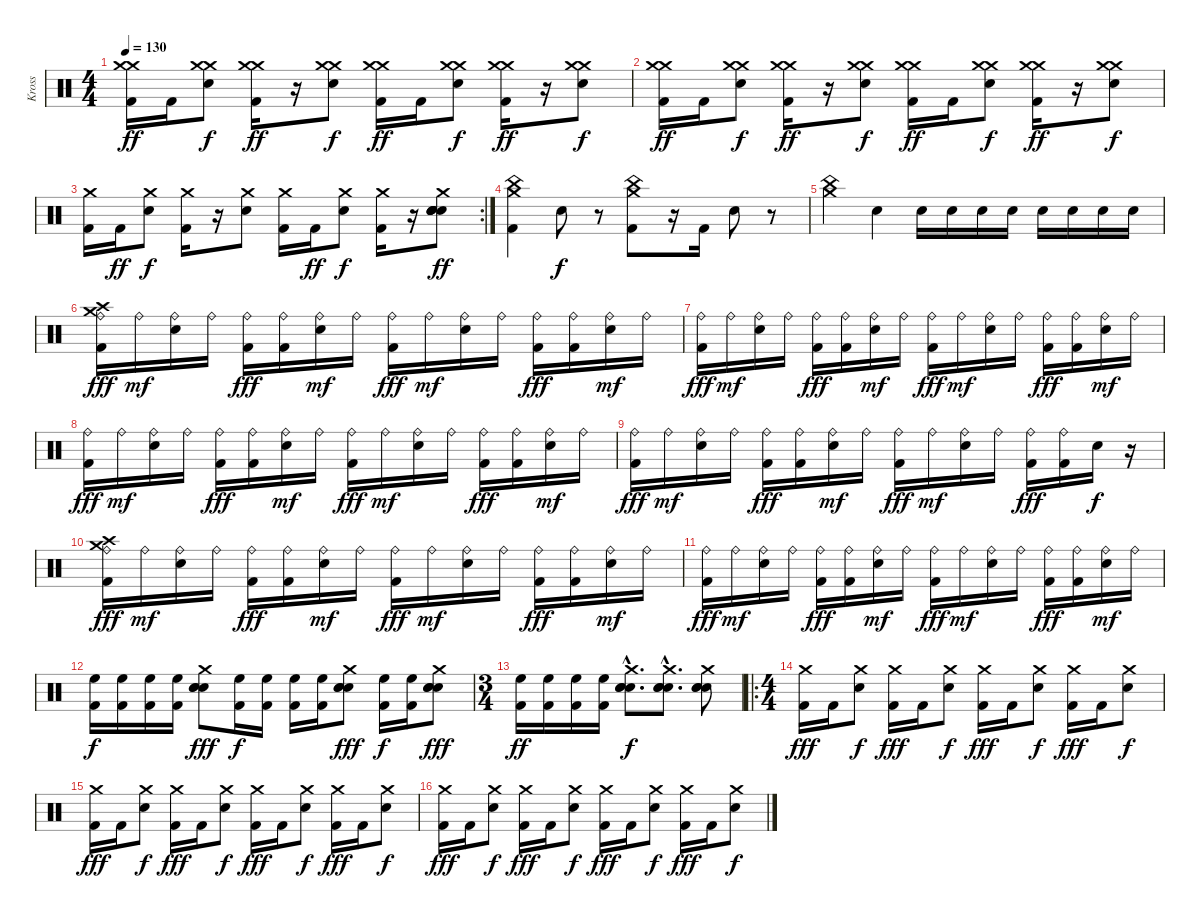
\track ("Kross" "Kross") {instrument percussion}
\staff {score}
\articulation defaults
\ts (4 4)
\tempo 130
\clef neutral
\ks c
("Kick (hit) 2" "Crash medium (hit)" "Crash medium (hit)").16{dy ff} "Kick (hit) 2".16 ("Crash medium (hit)" "Crash medium (hit)" "Snare (hit) 2").8{dy f} ("Kick (hit) 2" "Crash medium (hit)" "Crash medium (hit)").16{dy ff} r.16 ("Crash medium (hit)" "Crash medium (hit)" "Snare (hit) 2").8{dy f} ("Kick (hit) 2" "Crash medium (hit)" "Crash medium (hit)").16{dy ff} "Kick (hit) 2".16 ("Crash medium (hit)" "Crash medium (hit)" "Snare (hit) 2").8{dy f} ("Kick (hit) 2" "Crash medium (hit)" "Crash medium (hit)").16{dy ff} r.16 ("Crash medium (hit)" "Crash medium (hit)" "Snare (hit) 2").8{dy f} |
("Kick (hit) 2" "Crash medium (hit)" "Crash medium (hit)").16{dy ff} "Kick (hit) 2".16 ("Crash medium (hit)" "Crash medium (hit)" "Snare (hit) 2").8{dy f} ("Kick (hit) 2" "Crash medium (hit)" "Crash medium (hit)").16{dy ff} r.16 ("Crash medium (hit)" "Crash medium (hit)" "Snare (hit) 2").8{dy f} ("Kick (hit) 2" "Crash medium (hit)" "Crash medium (hit)").16{dy ff} "Kick (hit) 2".16 ("Crash medium (hit)" "Crash medium (hit)" "Snare (hit) 2").8{dy f} ("Kick (hit) 2" "Crash medium (hit)" "Crash medium (hit)").16{dy ff} r.16 ("Crash medium (hit)" "Crash medium (hit)" "Snare (hit) 2").8{dy f} |
\rc 2
("Kick (hit) 2" "Crash medium (hit)").16 "Kick (hit) 2".16{dy ff} ("Crash medium (hit)" "Snare (hit) 2").8{dy f} ("Kick (hit) 2" "Crash medium (hit)").16 r.16 ("Crash medium (hit)" "Snare (hit) 2").8 ("Kick (hit) 2" "Crash medium (hit)").16 "Kick (hit) 2".16{dy ff} ("Crash medium (hit)" "Snare (hit) 2").8{dy f} ("Kick (hit) 2" "Crash medium (hit)").16 r.16 ("Snare (hit) 2" "Snare (hit) 2" "Snare (hit) 2" "Snare (hit) 2" "Crash medium (hit)" "Snare (hit) 2").8{dy ff} |
("Kick (hit) 2" "China (hit)" "Crash medium (hit)").4 "Snare (hit) 2".8{dy f} r.8 ("Crash medium (hit)" "China (hit)" "Kick (hit) 2").8 r.16 "Kick (hit) 2".16 "Snare (hit) 2".8 r.8 |
("China (hit)" "Crash medium (hit)").4 "Snare (hit) 2".4 "Snare (hit) 2".16 "Snare (hit) 2".16 "Snare (hit) 2".16 "Snare (hit) 2".16 "Snare (hit) 2".16 "Snare (hit) 2".16 "Snare (hit) 2".16 "Snare (hit) 2".16 |
("Crash high (hit)" "Crash medium (hit)" "Ride (bell)" "Kick (hit) 2").16{dy fff} "Ride (bell)".16{dy mf} ("Ride (bell)" "Snare (hit) 2").16 "Ride (bell)".16 ("Ride (bell)" "Kick (hit) 2").16{dy fff} ("Ride (bell)" "Kick (hit) 2").16 ("Ride (bell)" "Snare (hit) 2").16{dy mf} "Ride (bell)".16 ("Ride (bell)" "Kick (hit) 2").16{dy fff} "Ride (bell)".16{dy mf} ("Ride (bell)" "Snare (hit) 2").16 "Ride (bell)".16 ("Ride (bell)" "Kick (hit) 2").16{dy fff} ("Ride (bell)" "Kick (hit) 2").16 ("Ride (bell)" "Snare (hit) 2").16{dy mf} "Ride (bell)".16 |
("Ride (bell)" "Kick (hit) 2").16{dy fff} "Ride (bell)".16{dy mf} ("Ride (bell)" "Snare (hit) 2").16 "Ride (bell)".16 ("Ride (bell)" "Kick (hit) 2").16{dy fff} ("Ride (bell)" "Kick (hit) 2").16 ("Ride (bell)" "Snare (hit) 2").16{dy mf} "Ride (bell)".16 ("Ride (bell)" "Kick (hit) 2").16{dy fff} "Ride (bell)".16{dy mf} ("Ride (bell)" "Snare (hit) 2").16 "Ride (bell)".16 ("Ride (bell)" "Kick (hit) 2").16{dy fff} ("Ride (bell)" "Kick (hit) 2").16 ("Ride (bell)" "Snare (hit) 2").16{dy mf} "Ride (bell)".16 |
("Ride (bell)" "Kick (hit) 2").16{dy fff} "Ride (bell)".16{dy mf} ("Ride (bell)" "Snare (hit) 2").16 "Ride (bell)".16 ("Ride (bell)" "Kick (hit) 2").16{dy fff} ("Ride (bell)" "Kick (hit) 2").16 ("Ride (bell)" "Snare (hit) 2").16{dy mf} "Ride (bell)".16 ("Ride (bell)" "Kick (hit) 2").16{dy fff} "Ride (bell)".16{dy mf} ("Ride (bell)" "Snare (hit) 2").16 "Ride (bell)".16 ("Ride (bell)" "Kick (hit) 2").16{dy fff} ("Ride (bell)" "Kick (hit) 2").16 ("Ride (bell)" "Snare (hit) 2").16{dy mf} "Ride (bell)".16 |
("Ride (bell)" "Kick (hit) 2").16{dy fff} "Ride (bell)".16{dy mf} ("Ride (bell)" "Snare (hit) 2").16 "Ride (bell)".16 ("Ride (bell)" "Kick (hit) 2").16{dy fff} ("Ride (bell)" "Kick (hit) 2").16 ("Ride (bell)" "Snare (hit) 2").16{dy mf} "Ride (bell)".16 ("Ride (bell)" "Kick (hit) 2").16{dy fff} "Ride (bell)".16{dy mf} ("Ride (bell)" "Snare (hit) 2").16 "Ride (bell)".16 ("Ride (bell)" "Kick (hit) 2").16{dy fff} ("Ride (bell)" "Kick (hit) 2").16 "Snare (hit) 2".16{dy f} r.16 |
("Crash high (hit)" "Crash medium (hit)" "Ride (bell)" "Kick (hit) 2").16{dy fff} "Ride (bell)".16{dy mf} ("Ride (bell)" "Snare (hit) 2").16 "Ride (bell)".16 ("Ride (bell)" "Kick (hit) 2").16{dy fff} ("Ride (bell)" "Kick (hit) 2").16 ("Ride (bell)" "Snare (hit) 2").16{dy mf} "Ride (bell)".16 ("Ride (bell)" "Kick (hit) 2").16{dy fff} "Ride (bell)".16{dy mf} ("Ride (bell)" "Snare (hit) 2").16 "Ride (bell)".16 ("Ride (bell)" "Kick (hit) 2").16{dy fff} ("Ride (bell)" "Kick (hit) 2").16 ("Ride (bell)" "Snare (hit) 2").16{dy mf} "Ride (bell)".16 |
("Ride (bell)" "Kick (hit) 2").16{dy fff} "Ride (bell)".16{dy mf} ("Ride (bell)" "Snare (hit) 2").16 "Ride (bell)".16 ("Ride (bell)" "Kick (hit) 2").16{dy fff} ("Ride (bell)" "Kick (hit) 2").16 ("Ride (bell)" "Snare (hit) 2").16{dy mf} "Ride (bell)".16 ("Ride (bell)" "Kick (hit) 2").16{dy fff} "Ride (bell)".16{dy mf} ("Ride (bell)" "Snare (hit) 2").16 "Ride (bell)".16 ("Ride (bell)" "Kick (hit) 2").16{dy fff} ("Ride (bell)" "Kick (hit) 2").16 ("Ride (bell)" "Snare (hit) 2").16{dy mf} "Ride (bell)".16 |
("High Floor Tom (hit)" "Kick (hit) 2").16{dy f} ("High Floor Tom (hit)" "Kick (hit) 2").16 ("High Floor Tom (hit)" "Kick (hit) 2").16 ("High Floor Tom (hit)" "Kick (hit) 2").16 ("Crash medium (hit)" "Snare (hit) 2" "Snare (hit) 2" "Snare (hit) 2").8{dy fff} ("High Floor Tom (hit)" "Kick (hit) 2").16{dy f} ("High Floor Tom (hit)" "Kick (hit) 2").16 ("High Floor Tom (hit)" "Kick (hit) 2").16 ("High Floor Tom (hit)" "Kick (hit) 2").16 ("Crash medium (hit)" "Snare (hit) 2" "Snare (hit) 2" "Snare (hit) 2").8{dy fff} ("High Floor Tom (hit)" "Kick (hit) 2").16{dy f} ("High Floor Tom (hit)" "Kick (hit) 2").16 ("Crash medium (hit)" "Snare (hit) 2" "Snare (hit) 2" "Snare (hit) 2").8{dy fff} |
\ts (3 4)
("High Floor Tom (hit)" "Kick (hit) 2").16{dy ff} ("High Floor Tom (hit)" "Kick (hit) 2").16 ("High Floor Tom (hit)" "Kick (hit) 2").16 ("High Floor Tom (hit)" "Kick (hit) 2").16 ("Crash medium (hit)"{hac} "Snare (hit) 2"{hac} "Snare (hit) 2"{hac} "Snare (hit) 2"{hac}).8{d dy f} ("Crash medium (hit)"{hac} "Snare (hit) 2"{hac} "Snare (hit) 2"{hac} "Snare (hit) 2"{hac}).8{d} ("Crash medium (hit)" "Snare (hit) 2" "Snare (hit) 2" "Snare (hit) 2").8 |
\ro
\ts (4 4)
("Kick (hit) 2" "Crash medium (hit)").16{dy fff} "Kick (hit) 2".16 ("Crash medium (hit)" "Snare (hit) 2").8{dy f} ("Kick (hit) 2" "Crash medium (hit)").16{dy fff} "Kick (hit) 2".16 ("Crash medium (hit)" "Snare (hit) 2").8{dy f} ("Kick (hit) 2" "Crash medium (hit)").16{dy fff} "Kick (hit) 2".16 ("Crash medium (hit)" "Snare (hit) 2").8{dy f} ("Kick (hit) 2" "Crash medium (hit)").16{dy fff} "Kick (hit) 2".16 ("Crash medium (hit)" "Snare (hit) 2").8{dy f} |
("Kick (hit) 2" "Crash medium (hit)").16{dy fff} "Kick (hit) 2".16 ("Crash medium (hit)" "Snare (hit) 2").8{dy f} ("Kick (hit) 2" "Crash medium (hit)").16{dy fff} "Kick (hit) 2".16 ("Crash medium (hit)" "Snare (hit) 2").8{dy f} ("Kick (hit) 2" "Crash medium (hit)").16{dy fff} "Kick (hit) 2".16 ("Crash medium (hit)" "Snare (hit) 2").8{dy f} ("Kick (hit) 2" "Crash medium (hit)").16{dy fff} "Kick (hit) 2".16 ("Crash medium (hit)" "Snare (hit) 2").8{dy f} |
("Kick (hit) 2" "Crash medium (hit)").16{dy fff} "Kick (hit) 2".16 ("Crash medium (hit)" "Snare (hit) 2").8{dy f} ("Kick (hit) 2" "Crash medium (hit)").16{dy fff} "Kick (hit) 2".16 ("Crash medium (hit)" "Snare (hit) 2").8{dy f} ("Kick (hit) 2" "Crash medium (hit)").16{dy fff} "Kick (hit) 2".16 ("Crash medium (hit)" "Snare (hit) 2").8{dy f} ("Kick (hit) 2" "Crash medium (hit)").16{dy fff} "Kick (hit) 2".16 ("Crash medium (hit)" "Snare (hit) 2").8{dy f}
